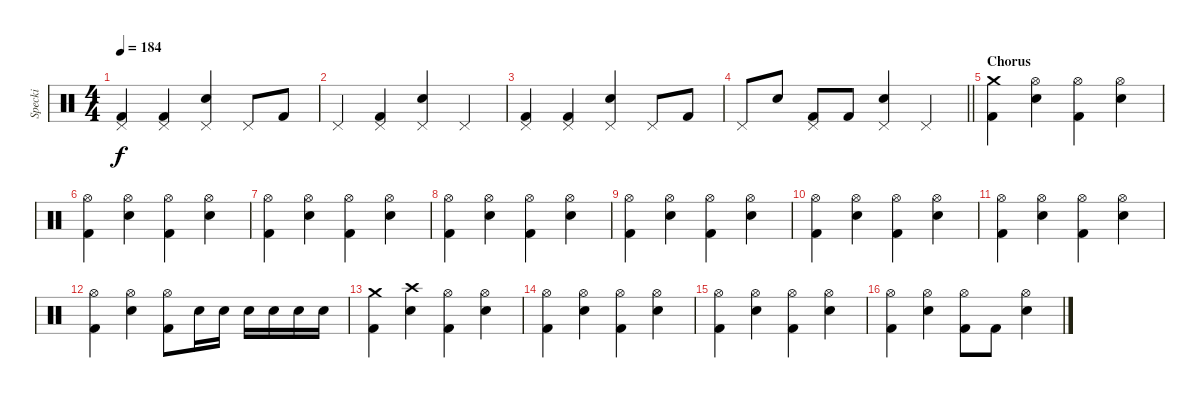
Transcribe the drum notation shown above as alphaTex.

\track ("Specki" "Specki") {instrument percussion}
\staff {score}
\articulation defaults
\ts (4 4)
\tempo 184
\clef neutral
\ks c
("Pedal Hi-Hat (hit)" "Kick (hit) 2").4{dy f} ("Pedal Hi-Hat (hit)" "Kick (hit) 2").4 ("Pedal Hi-Hat (hit)" "Electric Snare (hit)").4 "Pedal Hi-Hat (hit)".8 "Kick (hit) 2".8 |
"Pedal Hi-Hat (hit)".4 ("Pedal Hi-Hat (hit)" "Kick (hit) 2").4 ("Pedal Hi-Hat (hit)" "Electric Snare (hit)").4 "Pedal Hi-Hat (hit)".4 |
("Pedal Hi-Hat (hit)" "Kick (hit) 2").4 ("Pedal Hi-Hat (hit)" "Kick (hit) 2").4 ("Pedal Hi-Hat (hit)" "Electric Snare (hit)").4 "Pedal Hi-Hat (hit)".8 "Kick (hit) 2".8 |
\barLineRight lightlight "Pedal Hi-Hat (hit)".8 "Electric Snare (hit)".8
("Pedal Hi-Hat (hit)" "Kick (hit) 2").8 "Kick (hit) 2".8 ("Pedal Hi-Hat (hit)" "Electric Snare (hit)").4 "Pedal Hi-Hat (hit)".4 |
\section ("" "Chorus")
("Crash medium (hit)" "Kick (hit) 2").4 ("Hi-Hat (open)" "Electric Snare (hit)").4 ("Hi-Hat (open)" "Kick (hit) 2").4 ("Hi-Hat (open)" "Electric Snare (hit)").4 |
("Hi-Hat (open)" "Kick (hit) 2").4 ("Hi-Hat (open)" "Electric Snare (hit)").4 ("Hi-Hat (open)" "Kick (hit) 2").4 ("Hi-Hat (open)" "Electric Snare (hit)").4 |
("Hi-Hat (open)" "Kick (hit) 2").4 ("Hi-Hat (open)" "Electric Snare (hit)").4 ("Hi-Hat (open)" "Kick (hit) 2").4 ("Hi-Hat (open)" "Electric Snare (hit)").4 |
("Hi-Hat (open)" "Kick (hit) 2").4 ("Hi-Hat (open)" "Electric Snare (hit)").4 ("Hi-Hat (open)" "Kick (hit) 2").4 ("Hi-Hat (open)" "Electric Snare (hit)").4 |
("Hi-Hat (open)" "Kick (hit) 2").4 ("Hi-Hat (open)" "Electric Snare (hit)").4 ("Hi-Hat (open)" "Kick (hit) 2").4 ("Hi-Hat (open)" "Electric Snare (hit)").4 |
("Hi-Hat (open)" "Kick (hit) 2").4 ("Hi-Hat (open)" "Electric Snare (hit)").4 ("Hi-Hat (open)" "Kick (hit) 2").4 ("Hi-Hat (open)" "Electric Snare (hit)").4 |
("Hi-Hat (open)" "Kick (hit) 2").4 ("Hi-Hat (open)" "Electric Snare (hit)").4 ("Hi-Hat (open)" "Kick (hit) 2").4 ("Hi-Hat (open)" "Electric Snare (hit)").4 |
("Hi-Hat (open)" "Kick (hit) 2").4 ("Hi-Hat (open)" "Electric Snare (hit)").4 ("Hi-Hat (open)" "Kick (hit) 2").8 "Electric Snare (hit)".16 "Electric Snare (hit)".16 "Electric Snare (hit)".16 "Electric Snare (hit)".16 "Electric Snare (hit)".16 "Electric Snare (hit)".16 |
("Crash medium (hit)" "Kick (hit) 2").4 ("Crash high (hit)" "Electric Snare (hit)").4 ("Hi-Hat (open)" "Kick (hit) 2").4 ("Hi-Hat (open)" "Electric Snare (hit)").4 |
("Hi-Hat (open)" "Kick (hit) 2").4 ("Hi-Hat (open)" "Electric Snare (hit)").4 ("Hi-Hat (open)" "Kick (hit) 2").4 ("Hi-Hat (open)" "Electric Snare (hit)").4 |
("Hi-Hat (open)" "Kick (hit) 2").4 ("Hi-Hat (open)" "Electric Snare (hit)").4 ("Hi-Hat (open)" "Kick (hit) 2").4 ("Hi-Hat (open)" "Electric Snare (hit)").4 |
("Hi-Hat (open)" "Kick (hit) 2").4 ("Hi-Hat (open)" "Electric Snare (hit)").4 ("Hi-Hat (open)" "Kick (hit) 2").8 "Kick (hit) 2".8 ("Hi-Hat (open)" "Electric Snare (hit)").4
